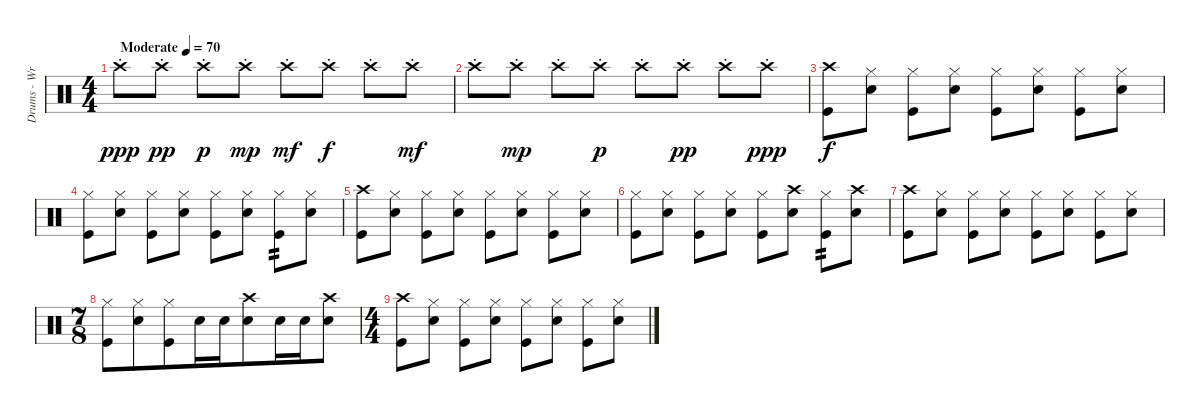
\track ("Drums - Wright" "Drums - Wr") {instrument percussion}
\staff {score}
\articulation defaults
\ts (4 4)
\tempo (70 "Moderate")
\clef neutral
\ks c "Crash high (hit)"{st}.8{dy ppp} "Crash high (hit)"{st}.8{dy pp} "Crash high (hit)"{st}.8{dy p} "Crash high (hit)"{st}.8{dy mp} "Crash high (hit)"{st}.8{dy mf} "Crash high (hit)"{st}.8{dy f} "Crash high (hit)"{st}.8 "Crash high (hit)"{st}.8{dy mf}
|
"Crash high (hit)"{st}.8 "Crash high (hit)"{st}.8{dy mp} "Crash high (hit)"{st}.8 "Crash high (hit)"{st}.8{dy p} "Crash high (hit)"{st}.8 "Crash high (hit)"{st}.8{dy pp} "Crash high (hit)"{st}.8 "Crash high (hit)"{st}.8{dy ppp} |
("Crash high (hit)" "Kick (hit)").8{dy f} ("Hi-Hat (closed)" "Snare (hit) 2").8 ("Hi-Hat (closed)" "Kick (hit)").8 ("Hi-Hat (closed)" "Snare (hit) 2").8 ("Hi-Hat (closed)" "Kick (hit)").8 ("Hi-Hat (closed)" "Snare (hit) 2").8 ("Hi-Hat (closed)" "Kick (hit)").8 ("Hi-Hat (closed)" "Snare (hit) 2").8 |
("Hi-Hat (closed)" "Kick (hit)").8 ("Hi-Hat (closed)" "Snare (hit) 2").8 ("Hi-Hat (closed)" "Kick (hit)").8 ("Hi-Hat (closed)" "Snare (hit) 2").8 ("Hi-Hat (closed)" "Kick (hit)").8 ("Hi-Hat (closed)" "Snare (hit) 2").8 ("Hi-Hat (closed)" "Kick (hit)").8{tp 2} ("Hi-Hat (closed)" "Snare (hit) 2").8 |
("Crash high (hit)" "Kick (hit)").8 ("Hi-Hat (closed)" "Snare (hit) 2").8 ("Hi-Hat (closed)" "Kick (hit)").8 ("Hi-Hat (closed)" "Snare (hit) 2").8 ("Hi-Hat (closed)" "Kick (hit)").8 ("Hi-Hat (closed)" "Snare (hit) 2").8 ("Hi-Hat (closed)" "Kick (hit)").8 ("Hi-Hat (closed)" "Snare (hit) 2").8 |
("Hi-Hat (closed)" "Kick (hit)").8 ("Hi-Hat (closed)" "Snare (hit) 2").8 ("Hi-Hat (closed)" "Kick (hit)").8 ("Hi-Hat (closed)" "Snare (hit) 2").8 ("Hi-Hat (closed)" "Kick (hit)").8 ("Crash high (hit)" "Snare (hit) 2").8 ("Hi-Hat (closed)" "Kick (hit)").8{tp 2} ("Crash high (hit)" "Snare (hit) 2").8 |
("Crash high (hit)" "Kick (hit)").8 ("Hi-Hat (closed)" "Snare (hit) 2").8 ("Hi-Hat (closed)" "Kick (hit)").8 ("Hi-Hat (closed)" "Snare (hit) 2").8 ("Hi-Hat (closed)" "Kick (hit)").8 ("Hi-Hat (closed)" "Snare (hit) 2").8 ("Hi-Hat (closed)" "Kick (hit)").8 ("Hi-Hat (closed)" "Snare (hit) 2").8 |
\ts (7 8)
("Hi-Hat (closed)" "Kick (hit)").8 ("Hi-Hat (closed)" "Snare (hit) 2").8 ("Hi-Hat (closed)" "Kick (hit)").8 "Snare (hit) 2".16 "Snare (hit) 2".16{beam merge} ("Crash high (hit)" "Snare (hit) 2").8 "Snare (hit) 2".16 "Snare (hit) 2".16{beam merge} ("Crash high (hit)" "Snare (hit) 2").8 |
\ts (4 4)
("Crash high (hit)" "Kick (hit)").8 ("Hi-Hat (closed)" "Snare (hit) 2").8 ("Hi-Hat (closed)" "Kick (hit)").8 ("Hi-Hat (closed)" "Snare (hit) 2").8 ("Hi-Hat (closed)" "Kick (hit)").8 ("Hi-Hat (closed)" "Snare (hit) 2").8 ("Hi-Hat (closed)" "Kick (hit)").8 ("Hi-Hat (closed)" "Snare (hit) 2").8
